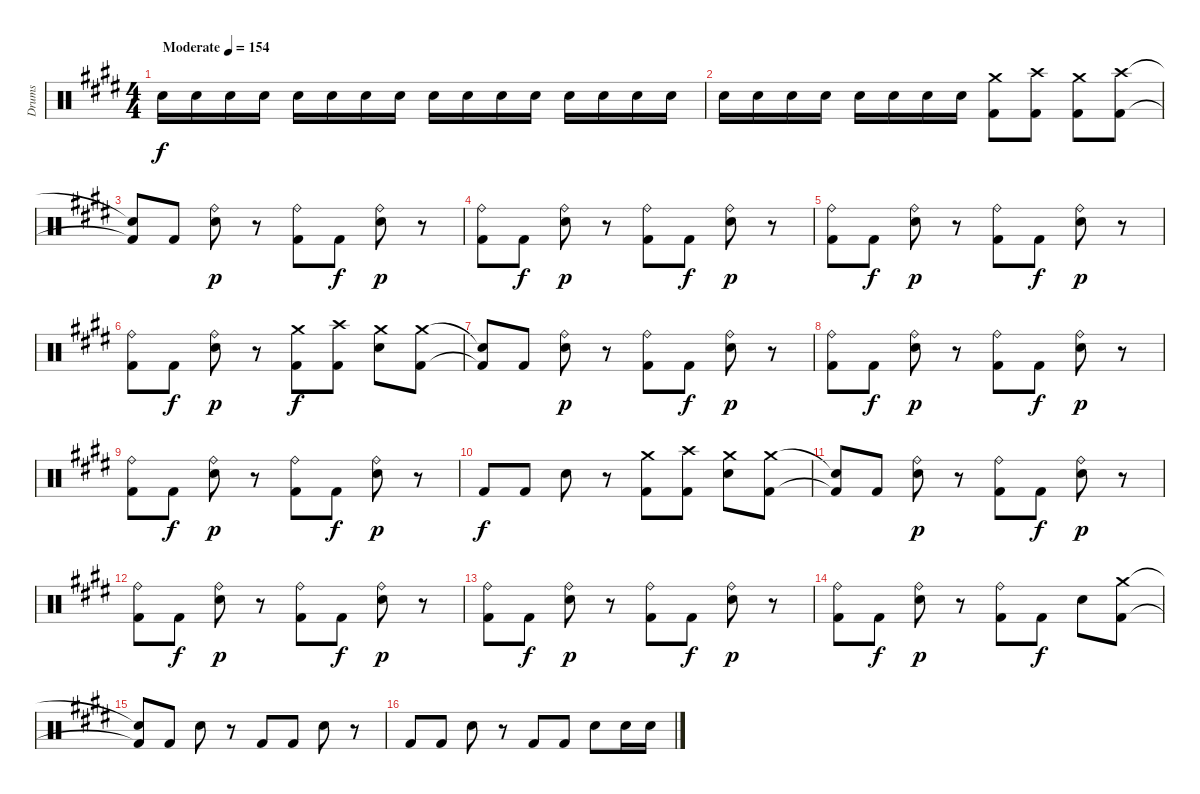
\track ("Drums" "Drums") {instrument percussion}
\staff {score}
\articulation defaults
\ts (4 4)
\tempo (154 "Moderate")
\clef neutral
\ks e "Electric Snare (hit)".16{dy f} "Electric Snare (hit)".16 "Electric Snare (hit)".16 "Electric Snare (hit)".16 "Electric Snare (hit)".16 "Electric Snare (hit)".16 "Electric Snare (hit)".16 "Electric Snare (hit)".16 "Electric Snare (hit)".16 "Electric Snare (hit)".16 "Electric Snare (hit)".16 "Electric Snare (hit)".16 "Electric Snare (hit)".16 "Electric Snare (hit)".16 "Electric Snare (hit)".16 "Electric Snare (hit)".16
|
"Electric Snare (hit)".16 "Electric Snare (hit)".16 "Electric Snare (hit)".16 "Electric Snare (hit)".16 "Electric Snare (hit)".16 "Electric Snare (hit)".16 "Electric Snare (hit)".16 "Electric Snare (hit)".16 ("Crash medium (hit)" "Kick (hit) 2").8 ("Crash high (hit)" "Kick (hit) 2").8 ("Crash medium (hit)" "Kick (hit) 2").8 ("Crash high (hit)" "Kick (hit) 2").8 |
("Snare (hit)"{t} "Kick (hit) 2"{t}).8 "Kick (hit) 2".8 ("Ride (bell)" "Electric Snare (hit)").8{dy p} r.8 ("Ride (bell)" "Kick (hit) 2").8 "Kick (hit) 2".8{dy f} ("Ride (bell)" "Electric Snare (hit)").8{dy p} r.8 |
("Ride (bell)" "Kick (hit) 2").8 "Kick (hit) 2".8{dy f} ("Ride (bell)" "Electric Snare (hit)").8{dy p} r.8 ("Ride (bell)" "Kick (hit) 2").8 "Kick (hit) 2".8{dy f} ("Ride (bell)" "Electric Snare (hit)").8{dy p} r.8 |
("Ride (bell)" "Kick (hit) 2").8 "Kick (hit) 2".8{dy f} ("Ride (bell)" "Electric Snare (hit)").8{dy p} r.8 ("Ride (bell)" "Kick (hit) 2").8 "Kick (hit) 2".8{dy f} ("Ride (bell)" "Electric Snare (hit)").8{dy p} r.8 |
("Ride (bell)" "Kick (hit) 2").8 "Kick (hit) 2".8{dy f} ("Ride (bell)" "Electric Snare (hit)").8{dy p} r.8 ("Crash medium (hit)" "Kick (hit) 2").8{dy f} ("Crash high (hit)" "Kick (hit) 2").8 ("Crash medium (hit)" "Electric Snare (hit)").8 ("Crash medium (hit)" "Kick (hit) 2").8 |
("Snare (hit)"{t} "Kick (hit) 2"{t}).8 "Kick (hit) 2".8 ("Ride (bell)" "Electric Snare (hit)").8{dy p} r.8 ("Ride (bell)" "Kick (hit) 2").8 "Kick (hit) 2".8{dy f} ("Ride (bell)" "Electric Snare (hit)").8{dy p} r.8 |
("Ride (bell)" "Kick (hit) 2").8 "Kick (hit) 2".8{dy f} ("Ride (bell)" "Electric Snare (hit)").8{dy p} r.8 ("Ride (bell)" "Kick (hit) 2").8 "Kick (hit) 2".8{dy f} ("Ride (bell)" "Electric Snare (hit)").8{dy p} r.8 |
("Ride (bell)" "Kick (hit) 2").8 "Kick (hit) 2".8{dy f} ("Ride (bell)" "Electric Snare (hit)").8{dy p} r.8 ("Ride (bell)" "Kick (hit) 2").8 "Kick (hit) 2".8{dy f} ("Ride (bell)" "Electric Snare (hit)").8{dy p} r.8 |
"Kick (hit) 2".8{dy f} "Kick (hit) 2".8 "Electric Snare (hit)".8 r.8 ("Crash medium (hit)" "Kick (hit) 2").8 ("Crash high (hit)" "Kick (hit) 2").8 ("Crash medium (hit)" "Electric Snare (hit)").8 ("Crash medium (hit)" "Kick (hit) 2").8 |
("Snare (hit)"{t} "Kick (hit) 2"{t}).8 "Kick (hit) 2".8 ("Ride (bell)" "Electric Snare (hit)").8{dy p} r.8 ("Ride (bell)" "Kick (hit) 2").8 "Kick (hit) 2".8{dy f} ("Ride (bell)" "Electric Snare (hit)").8{dy p} r.8 |
("Ride (bell)" "Kick (hit) 2").8 "Kick (hit) 2".8{dy f} ("Ride (bell)" "Electric Snare (hit)").8{dy p} r.8 ("Ride (bell)" "Kick (hit) 2").8 "Kick (hit) 2".8{dy f} ("Ride (bell)" "Electric Snare (hit)").8{dy p} r.8 |
("Ride (bell)" "Kick (hit) 2").8 "Kick (hit) 2".8{dy f} ("Ride (bell)" "Electric Snare (hit)").8{dy p} r.8 ("Ride (bell)" "Kick (hit) 2").8 "Kick (hit) 2".8{dy f} ("Ride (bell)" "Electric Snare (hit)").8{dy p} r.8 |
("Ride (bell)" "Kick (hit) 2").8 "Kick (hit) 2".8{dy f} ("Ride (bell)" "Electric Snare (hit)").8{dy p} r.8 ("Ride (bell)" "Kick (hit) 2").8 "Kick (hit) 2".8{dy f} "Electric Snare (hit)".8 ("Crash medium (hit)" "Kick (hit) 2").8 |
("Snare (hit)"{t} "Kick (hit) 2"{t}).8 "Kick (hit) 2".8 "Electric Snare (hit)".8 r.8 "Kick (hit) 2".8 "Kick (hit) 2".8 "Electric Snare (hit)".8 r.8 |
"Kick (hit) 2".8 "Kick (hit) 2".8 "Electric Snare (hit)".8 r.8 "Kick (hit) 2".8 "Kick (hit) 2".8 "Electric Snare (hit)".8 "Electric Snare (hit)".16 "Electric Snare (hit)".16
